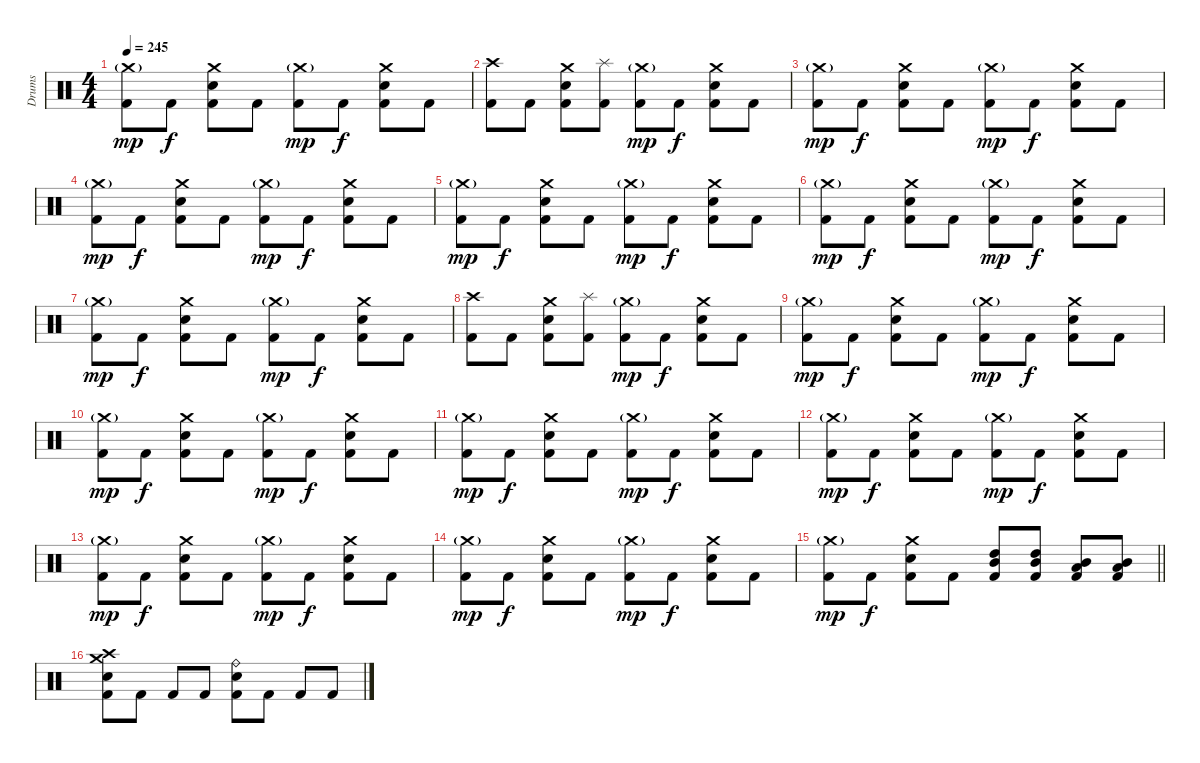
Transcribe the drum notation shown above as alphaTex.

\track ("Drums" "Drums") {instrument percussion}
\staff {score}
\articulation defaults
\ts (4 4)
\tempo 245
\clef neutral
\ks c
("Crash medium (hit)"{g} "Kick (hit) 2").8{dy mp} "Kick (hit) 2".8{dy f} ("Crash medium (hit)" "Electric Snare (hit)" "Kick (hit) 2").8 "Kick (hit) 2".8 ("Crash medium (hit)"{g} "Kick (hit) 2").8{dy mp} "Kick (hit) 2".8{dy f} ("Crash medium (hit)" "Electric Snare (hit)" "Kick (hit) 2").8 "Kick (hit) 2".8 |
("Crash high (hit)" "Kick (hit) 2").8 "Kick (hit) 2".8 ("Crash medium (hit)" "Electric Snare (hit)" "Kick (hit) 2").8 ("Splash (hit)" "Kick (hit) 2").8 ("Crash medium (hit)"{g} "Kick (hit) 2").8{dy mp} "Kick (hit) 2".8{dy f} ("Crash medium (hit)" "Electric Snare (hit)" "Kick (hit) 2").8 "Kick (hit) 2".8 |
("Crash medium (hit)"{g} "Kick (hit) 2").8{dy mp} "Kick (hit) 2".8{dy f} ("Crash medium (hit)" "Electric Snare (hit)" "Kick (hit) 2").8 "Kick (hit) 2".8 ("Crash medium (hit)"{g} "Kick (hit) 2").8{dy mp} "Kick (hit) 2".8{dy f} ("Crash medium (hit)" "Electric Snare (hit)" "Kick (hit) 2").8 "Kick (hit) 2".8 |
("Crash medium (hit)"{g} "Kick (hit) 2").8{dy mp} "Kick (hit) 2".8{dy f} ("Crash medium (hit)" "Electric Snare (hit)" "Kick (hit) 2").8 "Kick (hit) 2".8 ("Crash medium (hit)"{g} "Kick (hit) 2").8{dy mp} "Kick (hit) 2".8{dy f} ("Crash medium (hit)" "Electric Snare (hit)" "Kick (hit) 2").8 "Kick (hit) 2".8 |
("Crash medium (hit)"{g} "Kick (hit) 2").8{dy mp} "Kick (hit) 2".8{dy f} ("Crash medium (hit)" "Electric Snare (hit)" "Kick (hit) 2").8 "Kick (hit) 2".8 ("Crash medium (hit)"{g} "Kick (hit) 2").8{dy mp} "Kick (hit) 2".8{dy f} ("Crash medium (hit)" "Electric Snare (hit)" "Kick (hit) 2").8 "Kick (hit) 2".8 |
("Crash medium (hit)"{g} "Kick (hit) 2").8{dy mp} "Kick (hit) 2".8{dy f} ("Crash medium (hit)" "Electric Snare (hit)" "Kick (hit) 2").8 "Kick (hit) 2".8 ("Crash medium (hit)"{g} "Kick (hit) 2").8{dy mp} "Kick (hit) 2".8{dy f} ("Crash medium (hit)" "Electric Snare (hit)" "Kick (hit) 2").8 "Kick (hit) 2".8 |
("Crash medium (hit)"{g} "Kick (hit) 2").8{dy mp} "Kick (hit) 2".8{dy f} ("Crash medium (hit)" "Electric Snare (hit)" "Kick (hit) 2").8 "Kick (hit) 2".8 ("Crash medium (hit)"{g} "Kick (hit) 2").8{dy mp} "Kick (hit) 2".8{dy f} ("Crash medium (hit)" "Electric Snare (hit)" "Kick (hit) 2").8 "Kick (hit) 2".8 |
("Crash high (hit)" "Kick (hit) 2").8 "Kick (hit) 2".8 ("Crash medium (hit)" "Electric Snare (hit)" "Kick (hit) 2").8 ("Splash (hit)" "Kick (hit) 2").8 ("Crash medium (hit)"{g} "Kick (hit) 2").8{dy mp} "Kick (hit) 2".8{dy f} ("Crash medium (hit)" "Electric Snare (hit)" "Kick (hit) 2").8 "Kick (hit) 2".8 |
("Crash medium (hit)"{g} "Kick (hit) 2").8{dy mp} "Kick (hit) 2".8{dy f} ("Crash medium (hit)" "Electric Snare (hit)" "Kick (hit) 2").8 "Kick (hit) 2".8 ("Crash medium (hit)"{g} "Kick (hit) 2").8{dy mp} "Kick (hit) 2".8{dy f} ("Crash medium (hit)" "Electric Snare (hit)" "Kick (hit) 2").8 "Kick (hit) 2".8 |
("Crash medium (hit)"{g} "Kick (hit) 2").8{dy mp} "Kick (hit) 2".8{dy f} ("Crash medium (hit)" "Electric Snare (hit)" "Kick (hit) 2").8 "Kick (hit) 2".8 ("Crash medium (hit)"{g} "Kick (hit) 2").8{dy mp} "Kick (hit) 2".8{dy f} ("Crash medium (hit)" "Electric Snare (hit)" "Kick (hit) 2").8 "Kick (hit) 2".8 |
("Crash medium (hit)"{g} "Kick (hit) 2").8{dy mp} "Kick (hit) 2".8{dy f} ("Crash medium (hit)" "Electric Snare (hit)" "Kick (hit) 2").8 "Kick (hit) 2".8 ("Crash medium (hit)"{g} "Kick (hit) 2").8{dy mp} "Kick (hit) 2".8{dy f} ("Crash medium (hit)" "Electric Snare (hit)" "Kick (hit) 2").8 "Kick (hit) 2".8 |
("Crash medium (hit)"{g} "Kick (hit) 2").8{dy mp} "Kick (hit) 2".8{dy f} ("Crash medium (hit)" "Electric Snare (hit)" "Kick (hit) 2").8 "Kick (hit) 2".8 ("Crash medium (hit)"{g} "Kick (hit) 2").8{dy mp} "Kick (hit) 2".8{dy f} ("Crash medium (hit)" "Electric Snare (hit)" "Kick (hit) 2").8 "Kick (hit) 2".8 |
("Crash medium (hit)"{g} "Kick (hit) 2").8{dy mp} "Kick (hit) 2".8{dy f} ("Crash medium (hit)" "Electric Snare (hit)" "Kick (hit) 2").8 "Kick (hit) 2".8 ("Crash medium (hit)"{g} "Kick (hit) 2").8{dy mp} "Kick (hit) 2".8{dy f} ("Crash medium (hit)" "Electric Snare (hit)" "Kick (hit) 2").8 "Kick (hit) 2".8 |
("Crash medium (hit)"{g} "Kick (hit) 2").8{dy mp} "Kick (hit) 2".8{dy f} ("Crash medium (hit)" "Electric Snare (hit)" "Kick (hit) 2").8 "Kick (hit) 2".8 ("Crash medium (hit)"{g} "Kick (hit) 2").8{dy mp} "Kick (hit) 2".8{dy f} ("Crash medium (hit)" "Electric Snare (hit)" "Kick (hit) 2").8 "Kick (hit) 2".8 |
\barLineRight lightlight
("Crash medium (hit)"{g} "Kick (hit) 2").8{dy mp} "Kick (hit) 2".8{dy f} ("Crash medium (hit)" "Electric Snare (hit)" "Kick (hit) 2").8 "Kick (hit) 2".8 ("High Tom (hit)" "Mid Tom (hit)" "Kick (hit) 2").8 ("High Tom (hit)" "Mid Tom (hit)" "Kick (hit) 2").8 ("Mid Tom (hit)" "Low Tom (hit)" "Kick (hit) 2").8 ("Mid Tom (hit)" "Low Tom (hit)" "Kick (hit) 2").8 |
("Crash high (hit)" "Crash medium (hit)" "Electric Snare (hit)" "Kick (hit) 2").8 "Kick (hit) 2".8 "Kick (hit) 2".8 "Kick (hit) 2".8 ("Ride (bell)" "Electric Snare (hit)" "Kick (hit) 2").8 "Kick (hit) 2".8 "Kick (hit) 2".8 "Kick (hit) 2".8
